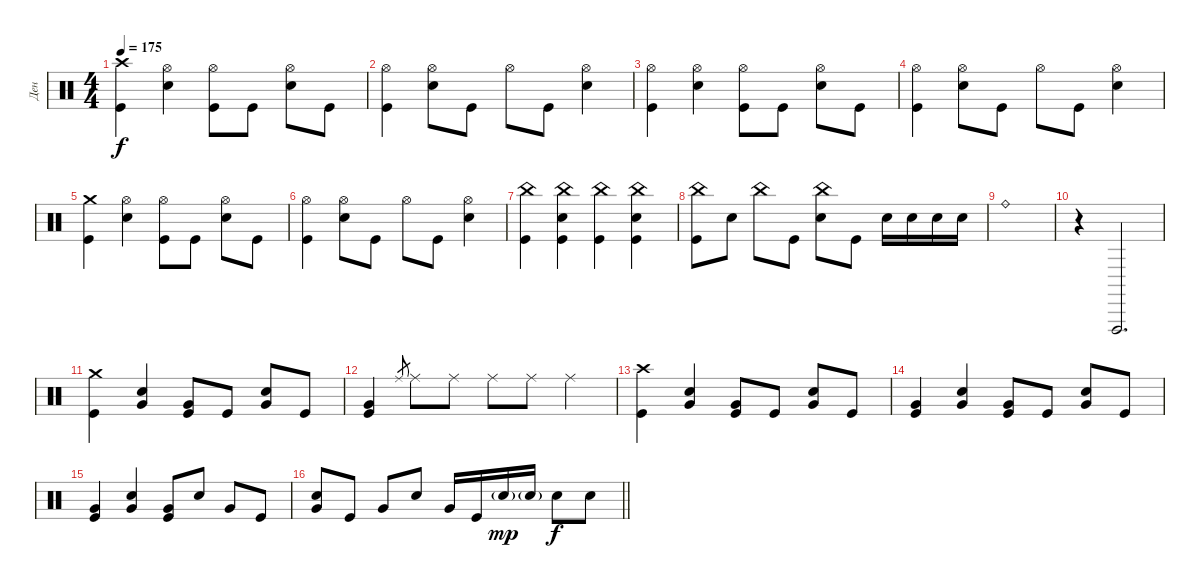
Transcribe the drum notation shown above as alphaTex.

\track ("Ден" "Ден") {instrument percussion}
\staff {score}
\articulation defaults
\ts (4 4)
\tempo 175
\clef neutral
\ks c
("Crash high (hit)" "Kick (hit)").4{dy f} ("Hi-Hat (open)" "Snare (hit) 2").4 ("Hi-Hat (open)" "Kick (hit)").8 "Kick (hit)".8 ("Hi-Hat (open)" "Snare (hit) 2").8 "Kick (hit)".8 |
("Hi-Hat (open)" "Kick (hit)").4 ("Hi-Hat (open)" "Snare (hit) 2").8 "Kick (hit)".8 "Hi-Hat (open)".8 "Kick (hit)".8 ("Hi-Hat (open)" "Snare (hit) 2").4 |
("Hi-Hat (open)" "Kick (hit)").4 ("Hi-Hat (open)" "Snare (hit) 2").4 ("Hi-Hat (open)" "Kick (hit)").8 "Kick (hit)".8 ("Hi-Hat (open)" "Snare (hit) 2").8 "Kick (hit)".8 |
("Hi-Hat (open)" "Kick (hit)").4 ("Hi-Hat (open)" "Snare (hit) 2").8 "Kick (hit)".8 "Hi-Hat (open)".8 "Kick (hit)".8 ("Hi-Hat (open)" "Snare (hit) 2").4 |
("Crash medium (hit)" "Kick (hit)").4 ("Hi-Hat (open)" "Snare (hit) 2").4 ("Hi-Hat (open)" "Kick (hit)").8 "Kick (hit)".8 ("Hi-Hat (open)" "Snare (hit) 2").8 "Kick (hit)".8 |
("Hi-Hat (open)" "Kick (hit)").4 ("Hi-Hat (open)" "Snare (hit) 2").8 "Kick (hit)".8 "Hi-Hat (open)".8 "Kick (hit)".8 ("Hi-Hat (open)" "Snare (hit) 2").4 |
("China (hit)" "Kick (hit)").4 ("China (hit)" "Snare (hit) 2" "Kick (hit)").4 ("China (hit)" "Kick (hit)").4 ("China (hit)" "Snare (hit) 2" "Kick (hit)").4 |
("China (hit)" "Kick (hit)").8 "Snare (hit) 2".8 "China (hit)".8 "Kick (hit)".8 ("China (hit)" "Snare (hit) 2").8 "Kick (hit)".8 "Snare (hit) 2".16 "Snare (hit) 2".16 "Snare (hit) 2".16 "Snare (hit) 2".16 |
"Ride (bell)".1 |
r.4 "Vibraslap (hit)".2{d} |
("Crash medium (hit)" "Kick (hit)").4 ("Snare (hit) 2" "Very Low Tom (hit)").4 ("Very Low Tom (hit)" "Kick (hit)").8 "Kick (hit)".8 ("Snare (hit) 2" "Very Low Tom (hit)").8 "Kick (hit)".8 |
("Very Low Tom (hit)" "Kick (hit)").4 "Ride (middle)".8{gr} "Ride (middle)".8 "Ride (middle)".8 "Ride (middle)".8 "Ride (middle)".8 "Ride (middle)".4 |
("Crash high (hit)" "Kick (hit)").4 ("Snare (hit) 2" "Very Low Tom (hit)").4 ("Very Low Tom (hit)" "Kick (hit)").8 "Kick (hit)".8 ("Snare (hit) 2" "Very Low Tom (hit)").8 "Kick (hit)".8 |
("Very Low Tom (hit)" "Kick (hit)").4 ("Snare (hit) 2" "Very Low Tom (hit)").4 ("Very Low Tom (hit)" "Kick (hit)").8 "Kick (hit)".8 ("Snare (hit) 2" "Very Low Tom (hit)").8 "Kick (hit)".8 |
("Very Low Tom (hit)" "Kick (hit)").4 ("Snare (hit) 2" "Very Low Tom (hit)").4 ("Very Low Tom (hit)" "Kick (hit)").8 "Snare (hit) 2".8 "Very Low Tom (hit)".8 "Kick (hit)".8 |
\barLineRight lightlight
("Snare (hit) 2" "Very Low Tom (hit)").8 "Kick (hit)".8 "Very Low Tom (hit)".8 "Snare (hit) 2".8 "Very Low Tom (hit)".16 "Kick (hit)".16 "Snare (hit) 2"{g}.16{dy mp} "Snare (hit) 2"{g}.16 "Snare (hit) 2".8{dy f} "Snare (hit) 2".8
